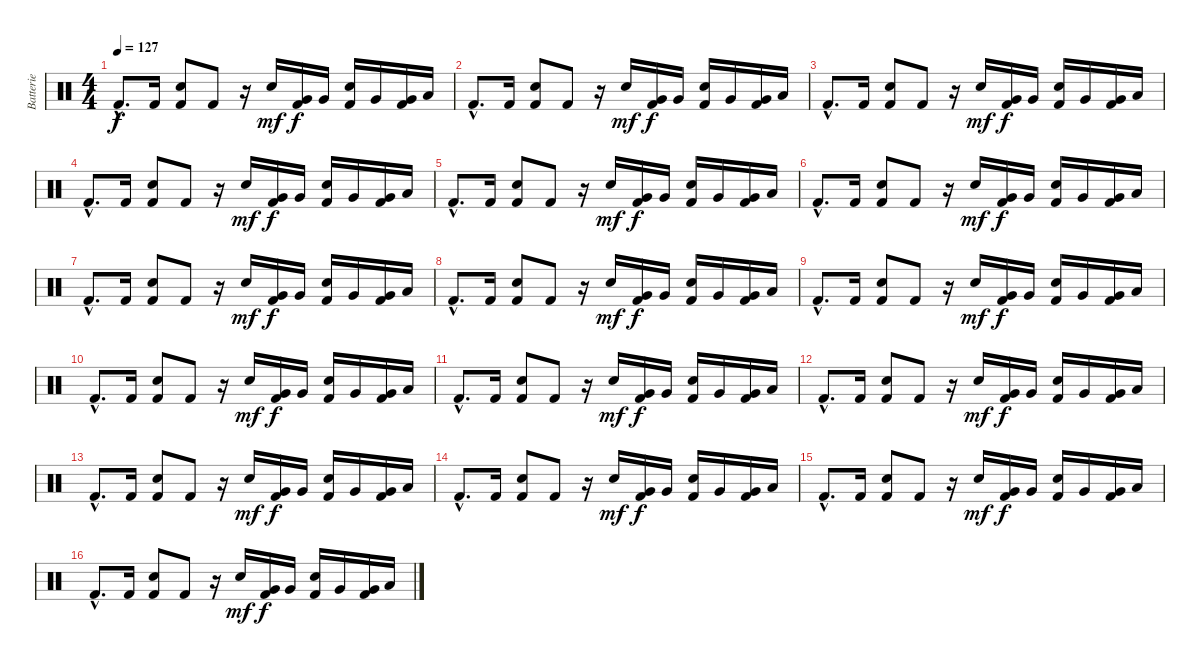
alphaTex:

\track ("Batterie" "Batterie") {instrument percussion}
\staff {score}
\articulation defaults
\ts (4 4)
\tempo 127
\clef neutral
\ks c "Kick (hit) 2"{hac}.8{d dy f} "Kick (hit) 2".16
("Electric Snare (hit)" "Kick (hit) 2").8 "Kick (hit) 2".8 r.16 "Electric Snare (hit)".16{dy mf} ("Very Low Tom (hit)" "Kick (hit) 2").16{dy f} "Very Low Tom (hit)".16 ("Electric Snare (hit)" "Kick (hit) 2").16 "Very Low Tom (hit)".16 ("Very Low Tom (hit)" "Kick (hit) 2").16 "Low Floor Tom (hit)".16 |
"Kick (hit) 2"{hac}.8{d} "Kick (hit) 2".16 ("Electric Snare (hit)" "Kick (hit) 2").8 "Kick (hit) 2".8 r.16 "Electric Snare (hit)".16{dy mf} ("Very Low Tom (hit)" "Kick (hit) 2").16{dy f} "Very Low Tom (hit)".16 ("Electric Snare (hit)" "Kick (hit) 2").16 "Very Low Tom (hit)".16 ("Very Low Tom (hit)" "Kick (hit) 2").16 "Low Floor Tom (hit)".16 |
"Kick (hit) 2"{hac}.8{d volume 9} "Kick (hit) 2".16 ("Electric Snare (hit)" "Kick (hit) 2").8 "Kick (hit) 2".8 r.16 "Electric Snare (hit)".16{dy mf} ("Very Low Tom (hit)" "Kick (hit) 2").16{dy f} "Very Low Tom (hit)".16 ("Electric Snare (hit)" "Kick (hit) 2").16 "Very Low Tom (hit)".16 ("Very Low Tom (hit)" "Kick (hit) 2").16 "Low Floor Tom (hit)".16 |
"Kick (hit) 2"{hac}.8{d} "Kick (hit) 2".16 ("Electric Snare (hit)" "Kick (hit) 2").8 "Kick (hit) 2".8 r.16 "Electric Snare (hit)".16{dy mf} ("Very Low Tom (hit)" "Kick (hit) 2").16{dy f} "Very Low Tom (hit)".16 ("Electric Snare (hit)" "Kick (hit) 2").16 "Very Low Tom (hit)".16 ("Very Low Tom (hit)" "Kick (hit) 2").16 "Low Floor Tom (hit)".16 |
"Kick (hit) 2"{hac}.8{d volume 10} "Kick (hit) 2".16 ("Electric Snare (hit)" "Kick (hit) 2").8 "Kick (hit) 2".8 r.16 "Electric Snare (hit)".16{dy mf} ("Very Low Tom (hit)" "Kick (hit) 2").16{dy f} "Very Low Tom (hit)".16 ("Electric Snare (hit)" "Kick (hit) 2").16 "Very Low Tom (hit)".16 ("Very Low Tom (hit)" "Kick (hit) 2").16 "Low Floor Tom (hit)".16 |
"Kick (hit) 2"{hac}.8{d} "Kick (hit) 2".16 ("Electric Snare (hit)" "Kick (hit) 2").8 "Kick (hit) 2".8 r.16 "Electric Snare (hit)".16{dy mf} ("Very Low Tom (hit)" "Kick (hit) 2").16{dy f} "Very Low Tom (hit)".16 ("Electric Snare (hit)" "Kick (hit) 2").16 "Very Low Tom (hit)".16 ("Very Low Tom (hit)" "Kick (hit) 2").16 "Low Floor Tom (hit)".16 |
"Kick (hit) 2"{hac}.8{d volume 11} "Kick (hit) 2".16 ("Electric Snare (hit)" "Kick (hit) 2").8 "Kick (hit) 2".8 r.16 "Electric Snare (hit)".16{dy mf} ("Very Low Tom (hit)" "Kick (hit) 2").16{dy f} "Very Low Tom (hit)".16 ("Electric Snare (hit)" "Kick (hit) 2").16 "Very Low Tom (hit)".16 ("Very Low Tom (hit)" "Kick (hit) 2").16 "Low Floor Tom (hit)".16 |
"Kick (hit) 2"{hac}.8{d} "Kick (hit) 2".16 ("Electric Snare (hit)" "Kick (hit) 2").8 "Kick (hit) 2".8 r.16 "Electric Snare (hit)".16{dy mf} ("Very Low Tom (hit)" "Kick (hit) 2").16{dy f} "Very Low Tom (hit)".16 ("Electric Snare (hit)" "Kick (hit) 2").16 "Very Low Tom (hit)".16 ("Very Low Tom (hit)" "Kick (hit) 2").16 "Low Floor Tom (hit)".16 |
"Kick (hit) 2"{hac}.8{d volume 12} "Kick (hit) 2".16 ("Electric Snare (hit)" "Kick (hit) 2").8 "Kick (hit) 2".8 r.16 "Electric Snare (hit)".16{dy mf} ("Very Low Tom (hit)" "Kick (hit) 2").16{dy f} "Very Low Tom (hit)".16 ("Electric Snare (hit)" "Kick (hit) 2").16 "Very Low Tom (hit)".16 ("Very Low Tom (hit)" "Kick (hit) 2").16 "Low Floor Tom (hit)".16 |
"Kick (hit) 2"{hac}.8{d} "Kick (hit) 2".16 ("Electric Snare (hit)" "Kick (hit) 2").8 "Kick (hit) 2".8 r.16 "Electric Snare (hit)".16{dy mf} ("Very Low Tom (hit)" "Kick (hit) 2").16{dy f} "Very Low Tom (hit)".16 ("Electric Snare (hit)" "Kick (hit) 2").16 "Very Low Tom (hit)".16 ("Very Low Tom (hit)" "Kick (hit) 2").16 "Low Floor Tom (hit)".16 |
"Kick (hit) 2"{hac}.8{d volume 13} "Kick (hit) 2".16 ("Electric Snare (hit)" "Kick (hit) 2").8 "Kick (hit) 2".8 r.16 "Electric Snare (hit)".16{dy mf} ("Very Low Tom (hit)" "Kick (hit) 2").16{dy f} "Very Low Tom (hit)".16 ("Electric Snare (hit)" "Kick (hit) 2").16 "Very Low Tom (hit)".16 ("Very Low Tom (hit)" "Kick (hit) 2").16 "Low Floor Tom (hit)".16 |
"Kick (hit) 2"{hac}.8{d} "Kick (hit) 2".16 ("Electric Snare (hit)" "Kick (hit) 2").8 "Kick (hit) 2".8 r.16 "Electric Snare (hit)".16{dy mf} ("Very Low Tom (hit)" "Kick (hit) 2").16{dy f} "Very Low Tom (hit)".16 ("Electric Snare (hit)" "Kick (hit) 2").16 "Very Low Tom (hit)".16 ("Very Low Tom (hit)" "Kick (hit) 2").16 "Low Floor Tom (hit)".16 |
"Kick (hit) 2"{hac}.8{d} "Kick (hit) 2".16 ("Electric Snare (hit)" "Kick (hit) 2").8 "Kick (hit) 2".8 r.16 "Electric Snare (hit)".16{dy mf} ("Very Low Tom (hit)" "Kick (hit) 2").16{dy f} "Very Low Tom (hit)".16 ("Electric Snare (hit)" "Kick (hit) 2").16 "Very Low Tom (hit)".16 ("Very Low Tom (hit)" "Kick (hit) 2").16 "Low Floor Tom (hit)".16 |
"Kick (hit) 2"{hac}.8{d} "Kick (hit) 2".16 ("Electric Snare (hit)" "Kick (hit) 2").8 "Kick (hit) 2".8 r.16 "Electric Snare (hit)".16{dy mf} ("Very Low Tom (hit)" "Kick (hit) 2").16{dy f} "Very Low Tom (hit)".16 ("Electric Snare (hit)" "Kick (hit) 2").16 "Very Low Tom (hit)".16 ("Very Low Tom (hit)" "Kick (hit) 2").16 "Low Floor Tom (hit)".16 |
"Kick (hit) 2"{hac}.8{d} "Kick (hit) 2".16 ("Electric Snare (hit)" "Kick (hit) 2").8 "Kick (hit) 2".8 r.16 "Electric Snare (hit)".16{dy mf} ("Very Low Tom (hit)" "Kick (hit) 2").16{dy f} "Very Low Tom (hit)".16 ("Electric Snare (hit)" "Kick (hit) 2").16 "Very Low Tom (hit)".16 ("Very Low Tom (hit)" "Kick (hit) 2").16 "Low Floor Tom (hit)".16 |
"Kick (hit) 2"{hac}.8{d} "Kick (hit) 2".16 ("Electric Snare (hit)" "Kick (hit) 2").8 "Kick (hit) 2".8 r.16 "Electric Snare (hit)".16{dy mf} ("Very Low Tom (hit)" "Kick (hit) 2").16{dy f} "Very Low Tom (hit)".16 ("Electric Snare (hit)" "Kick (hit) 2").16 "Very Low Tom (hit)".16 ("Very Low Tom (hit)" "Kick (hit) 2").16 "Low Floor Tom (hit)".16
